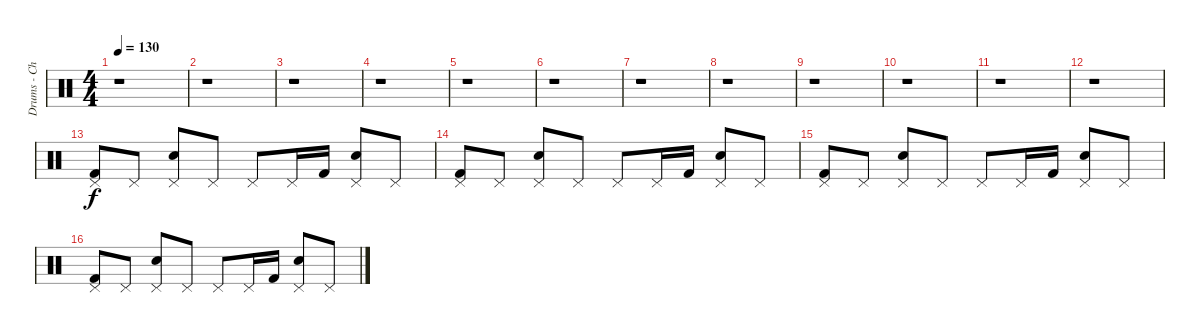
\track ("Drums - Christoph Schneider" "Drums - Ch") {instrument percussion}
\staff {score}
\articulation defaults
\ts (4 4)
\tempo 130
\clef neutral
\ks c
r.1{dy f} |
r.1 |
r.1 |
r.1 |
r.1 |
r.1 |
r.1 |
r.1 |
r.1 |
r.1 |
r.1 |
r.1 |
("Pedal Hi-Hat (hit)" "Kick (hit) 2").8 "Pedal Hi-Hat (hit)".8 ("Pedal Hi-Hat (hit)" "Electric Snare (hit)").8 "Pedal Hi-Hat (hit)".8 "Pedal Hi-Hat (hit)".8 "Pedal Hi-Hat (hit)".16 "Kick (hit) 2".16 ("Pedal Hi-Hat (hit)" "Electric Snare (hit)").8 "Pedal Hi-Hat (hit)".8 |
("Pedal Hi-Hat (hit)" "Kick (hit) 2").8 "Pedal Hi-Hat (hit)".8 ("Pedal Hi-Hat (hit)" "Electric Snare (hit)").8 "Pedal Hi-Hat (hit)".8 "Pedal Hi-Hat (hit)".8 "Pedal Hi-Hat (hit)".16 "Kick (hit) 2".16 ("Pedal Hi-Hat (hit)" "Electric Snare (hit)").8 "Pedal Hi-Hat (hit)".8 |
("Pedal Hi-Hat (hit)" "Kick (hit) 2").8 "Pedal Hi-Hat (hit)".8 ("Pedal Hi-Hat (hit)" "Electric Snare (hit)").8 "Pedal Hi-Hat (hit)".8 "Pedal Hi-Hat (hit)".8 "Pedal Hi-Hat (hit)".16 "Kick (hit) 2".16 ("Pedal Hi-Hat (hit)" "Electric Snare (hit)").8 "Pedal Hi-Hat (hit)".8 |
("Pedal Hi-Hat (hit)" "Kick (hit) 2").8 "Pedal Hi-Hat (hit)".8 ("Pedal Hi-Hat (hit)" "Electric Snare (hit)").8 "Pedal Hi-Hat (hit)".8 "Pedal Hi-Hat (hit)".8 "Pedal Hi-Hat (hit)".16 "Kick (hit) 2".16 ("Pedal Hi-Hat (hit)" "Electric Snare (hit)").8 "Pedal Hi-Hat (hit)".8
